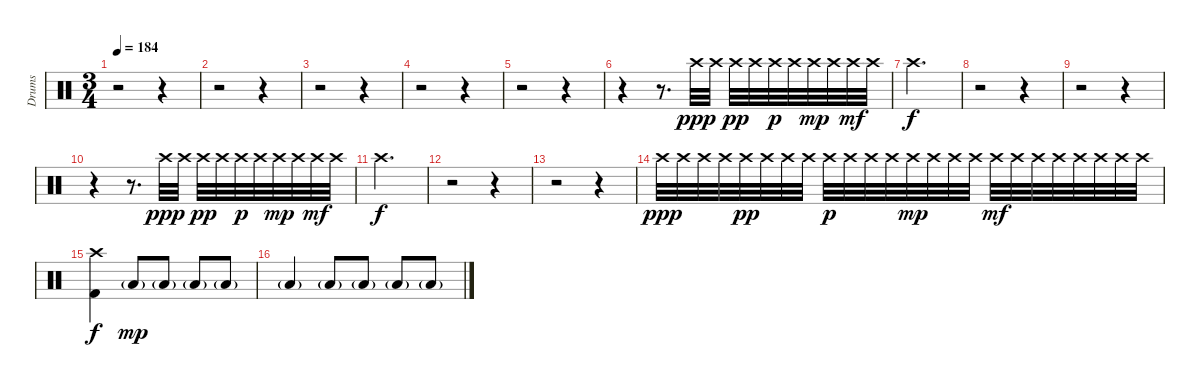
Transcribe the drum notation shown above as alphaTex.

\track ("Drums" "Drums") {instrument percussion}
\staff {score}
\articulation defaults
\ts (3 4)
\tempo 184
\clef neutral
\ks c
r.2{dy f} r.4 |
r.2 r.4 |
r.2 r.4 |
r.2 r.4 |
r.2 r.4 |
r.4{volume 10} r.8{d} "Crash high (hit)".32{dy ppp} "Crash high (hit)".32 "Crash high (hit)".32{dy pp} "Crash high (hit)".32 "Crash high (hit)".32{dy p} "Crash high (hit)".32 "Crash high (hit)".32{dy mp} "Crash high (hit)".32 "Crash high (hit)".32{dy mf} "Crash high (hit)".32 |
"Crash high (hit)".2{d dy f} |
r.2 r.4 |
r.2 r.4 |
r.4{volume 5} r.8{d} "Crash high (hit)".32{dy ppp} "Crash high (hit)".32 "Crash high (hit)".32{dy pp} "Crash high (hit)".32 "Crash high (hit)".32{dy p} "Crash high (hit)".32 "Crash high (hit)".32{dy mp} "Crash high (hit)".32 "Crash high (hit)".32{dy mf} "Crash high (hit)".32 |
"Crash high (hit)".2{d dy f} |
r.2 r.4 |
r.2 r.4 |
"Crash high (hit)".32{dy ppp volume 13} "Crash high (hit)".32 "Crash high (hit)".32 "Crash high (hit)".32 "Crash high (hit)".32{dy pp} "Crash high (hit)".32 "Crash high (hit)".32 "Crash high (hit)".32 "Crash high (hit)".32{dy p} "Crash high (hit)".32 "Crash high (hit)".32 "Crash high (hit)".32 "Crash high (hit)".32{dy mp} "Crash high (hit)".32 "Crash high (hit)".32 "Crash high (hit)".32 "Crash high (hit)".32{dy mf} "Crash high (hit)".32 "Crash high (hit)".32 "Crash high (hit)".32 "Crash high (hit)".32 "Crash high (hit)".32 "Crash high (hit)".32 "Crash high (hit)".32 |
("Crash high (hit)" "Kick (hit) 2").4{dy f} "Low Floor Tom (hit)"{g}.8{dy mp} "Low Floor Tom (hit)"{g}.8 "Low Floor Tom (hit)"{g}.8 "Low Floor Tom (hit)"{g}.8 |
"Low Floor Tom (hit)"{g}.4 "Low Floor Tom (hit)"{g}.8 "Low Floor Tom (hit)"{g}.8 "Low Floor Tom (hit)"{g}.8 "Low Floor Tom (hit)"{g}.8
